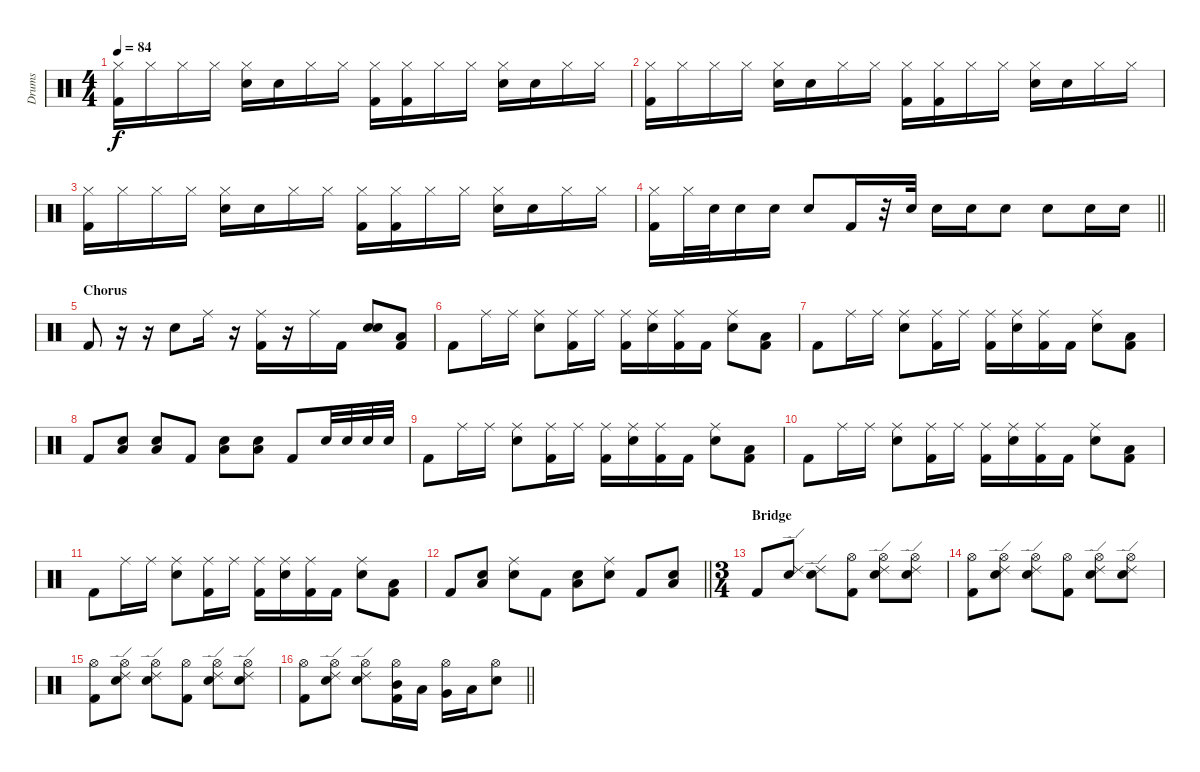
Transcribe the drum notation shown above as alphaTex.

\track ("Drums" "Drums") {instrument percussion}
\staff {score}
\articulation defaults
\ts (4 4)
\tempo 84
\clef neutral
\ks c
("Hi-Hat (closed)" "Kick (hit) 2").16{dy f} "Hi-Hat (closed)".16 "Hi-Hat (closed)".16 "Hi-Hat (closed)".16 ("Hi-Hat (closed)" "Electric Snare (hit)").16 "Electric Snare (hit)".16 "Hi-Hat (closed)".16 "Hi-Hat (closed)".16 ("Hi-Hat (closed)" "Kick (hit) 2").16 ("Hi-Hat (closed)" "Kick (hit) 2").16 "Hi-Hat (closed)".16 "Hi-Hat (closed)".16 ("Hi-Hat (closed)" "Electric Snare (hit)").16 "Electric Snare (hit)".16 "Hi-Hat (closed)".16 "Hi-Hat (closed)".16 |
("Hi-Hat (closed)" "Kick (hit) 2").16 "Hi-Hat (closed)".16 "Hi-Hat (closed)".16 "Hi-Hat (closed)".16 ("Hi-Hat (closed)" "Electric Snare (hit)").16 "Electric Snare (hit)".16 "Hi-Hat (closed)".16 "Hi-Hat (closed)".16 ("Hi-Hat (closed)" "Kick (hit) 2").16 ("Hi-Hat (closed)" "Kick (hit) 2").16 "Hi-Hat (closed)".16 "Hi-Hat (closed)".16 ("Hi-Hat (closed)" "Electric Snare (hit)").16 "Electric Snare (hit)".16 "Hi-Hat (closed)".16 "Hi-Hat (closed)".16 |
("Hi-Hat (closed)" "Kick (hit) 2").16 "Hi-Hat (closed)".16 "Hi-Hat (closed)".16 "Hi-Hat (closed)".16 ("Hi-Hat (closed)" "Electric Snare (hit)").16 "Electric Snare (hit)".16 "Hi-Hat (closed)".16 "Hi-Hat (closed)".16 ("Hi-Hat (closed)" "Kick (hit) 2").16 ("Hi-Hat (closed)" "Kick (hit) 2").16 "Hi-Hat (closed)".16 "Hi-Hat (closed)".16 ("Hi-Hat (closed)" "Electric Snare (hit)").16 "Electric Snare (hit)".16 "Hi-Hat (closed)".16 "Hi-Hat (closed)".16 |
\barLineRight lightlight
("Hi-Hat (closed)" "Kick (hit) 2").16 "Hi-Hat (closed)".32 "Electric Snare (hit)".32 "Electric Snare (hit)".16 "Electric Snare (hit)".16 "Electric Snare (hit)".8 "Kick (hit) 2".16 r.32 "Electric Snare (hit)".32 "Electric Snare (hit)".16 "Electric Snare (hit)".16 "Electric Snare (hit)".8 "Electric Snare (hit)".8 "Electric Snare (hit)".16 "Electric Snare (hit)".16 |
\section ("" "Chorus")
"Kick (hit) 2".8 r.16 r.16 "Electric Snare (hit)".8 "Ride (middle)".16 r.16 ("Ride (middle)" "Kick (hit) 2").16 r.16 "Ride (middle)".16 "Kick (hit) 2".16 ("Electric Snare (hit)" "Electric Snare (hit)").8{bd 60} ("Low Floor Tom (hit)" "Kick (hit) 2").8 |
"Kick (hit) 2".8 "Ride (middle)".16 "Ride (middle)".16 ("Ride (middle)" "Electric Snare (hit)").8 ("Ride (middle)" "Kick (hit) 2").16 "Ride (middle)".16 ("Ride (middle)" "Kick (hit) 2").16 ("Ride (middle)" "Electric Snare (hit)").16 ("Ride (middle)" "Kick (hit) 2").16 "Kick (hit) 2".16 ("Ride (middle)" "Electric Snare (hit)").8 ("Low Floor Tom (hit)" "Kick (hit) 2").8 |
"Kick (hit) 2".8 "Ride (middle)".16 "Ride (middle)".16 ("Ride (middle)" "Electric Snare (hit)").8 ("Ride (middle)" "Kick (hit) 2").16 "Ride (middle)".16 ("Ride (middle)" "Kick (hit) 2").16 ("Ride (middle)" "Electric Snare (hit)").16 ("Ride (middle)" "Kick (hit) 2").16 "Kick (hit) 2".16 ("Ride (middle)" "Electric Snare (hit)").8 ("Low Floor Tom (hit)" "Kick (hit) 2").8 |
"Kick (hit) 2".8 ("Low Floor Tom (hit)" "Electric Snare (hit)").8 ("Low Floor Tom (hit)" "Electric Snare (hit)").8 "Kick (hit) 2".8 ("Low Floor Tom (hit)" "Electric Snare (hit)").8 ("Low Floor Tom (hit)" "Electric Snare (hit)").8 "Kick (hit) 2".8 "Electric Snare (hit)".32 "Electric Snare (hit)".32 "Electric Snare (hit)".32 "Electric Snare (hit)".32 |
"Kick (hit) 2".8 "Ride (middle)".16 "Ride (middle)".16 ("Ride (middle)" "Electric Snare (hit)").8 ("Ride (middle)" "Kick (hit) 2").16 "Ride (middle)".16 ("Ride (middle)" "Kick (hit) 2").16 ("Ride (middle)" "Electric Snare (hit)").16 ("Ride (middle)" "Kick (hit) 2").16 "Kick (hit) 2".16 ("Ride (middle)" "Electric Snare (hit)").8 ("Low Floor Tom (hit)" "Kick (hit) 2").8 |
"Kick (hit) 2".8 "Ride (middle)".16 "Ride (middle)".16 ("Ride (middle)" "Electric Snare (hit)").8 ("Ride (middle)" "Kick (hit) 2").16 "Ride (middle)".16 ("Ride (middle)" "Kick (hit) 2").16 ("Ride (middle)" "Electric Snare (hit)").16 ("Ride (middle)" "Kick (hit) 2").16 "Kick (hit) 2".16 ("Ride (middle)" "Electric Snare (hit)").8 ("Low Floor Tom (hit)" "Kick (hit) 2").8 |
"Kick (hit) 2".8 "Ride (middle)".16 "Ride (middle)".16 ("Ride (middle)" "Electric Snare (hit)").8 ("Ride (middle)" "Kick (hit) 2").16 "Ride (middle)".16 ("Ride (middle)" "Kick (hit) 2").16 ("Ride (middle)" "Electric Snare (hit)").16 ("Ride (middle)" "Kick (hit) 2").16 "Kick (hit) 2".16 ("Ride (middle)" "Electric Snare (hit)").8 ("Low Floor Tom (hit)" "Kick (hit) 2").8 |
\barLineRight lightlight "Kick (hit) 2".8
("Low Floor Tom (hit)" "Electric Snare (hit)").8 ("Ride (middle)" "Electric Snare (hit)").8 "Kick (hit) 2".8 ("Low Floor Tom (hit)" "Electric Snare (hit)").8 ("Ride (middle)" "Electric Snare (hit)").8 "Kick (hit) 2".8 ("Low Floor Tom (hit)" "Electric Snare (hit)").8 |
\ts (3 4)
\section ("" "Bridge")
"Kick (hit) 2".8{volume 10} ("Ride (edge) 2" "Electric Snare (hit)").8 ("Ride (edge) 2" "Electric Snare (hit)").8 ("Hi-Hat (open)" "Kick (hit) 2").8 ("Ride (edge) 2" "Hi-Hat (open)" "Electric Snare (hit)").8 ("Ride (edge) 2" "Hi-Hat (open)" "Electric Snare (hit)").8 |
("Hi-Hat (open)" "Kick (hit) 2").8 ("Ride (edge) 2" "Hi-Hat (open)" "Electric Snare (hit)").8 ("Ride (edge) 2" "Hi-Hat (open)" "Electric Snare (hit)").8 ("Hi-Hat (open)" "Kick (hit) 2").8 ("Ride (edge) 2" "Hi-Hat (open)" "Electric Snare (hit)").8 ("Ride (edge) 2" "Hi-Hat (open)" "Electric Snare (hit)").8 |
("Hi-Hat (open)" "Kick (hit) 2").8 ("Ride (edge) 2" "Hi-Hat (open)" "Electric Snare (hit)").8 ("Ride (edge) 2" "Hi-Hat (open)" "Electric Snare (hit)").8 ("Hi-Hat (open)" "Kick (hit) 2").8 ("Ride (edge) 2" "Hi-Hat (open)" "Electric Snare (hit)").8 ("Ride (edge) 2" "Hi-Hat (open)" "Electric Snare (hit)").8 |
\barLineRight lightlight
("Hi-Hat (open)" "Kick (hit) 2").8 ("Ride (edge) 2" "Hi-Hat (open)" "Electric Snare (hit)").8 ("Ride (edge) 2" "Hi-Hat (open)" "Electric Snare (hit)").8 ("Hi-Hat (open)" "Mid Tom (hit)" "Kick (hit) 2").16 "Low Tom (hit)".16 ("Hi-Hat (open)" "Very Low Tom (hit)").16 "Low Floor Tom (hit)".16 ("Hi-Hat (open)" "Electric Snare (hit)").8
